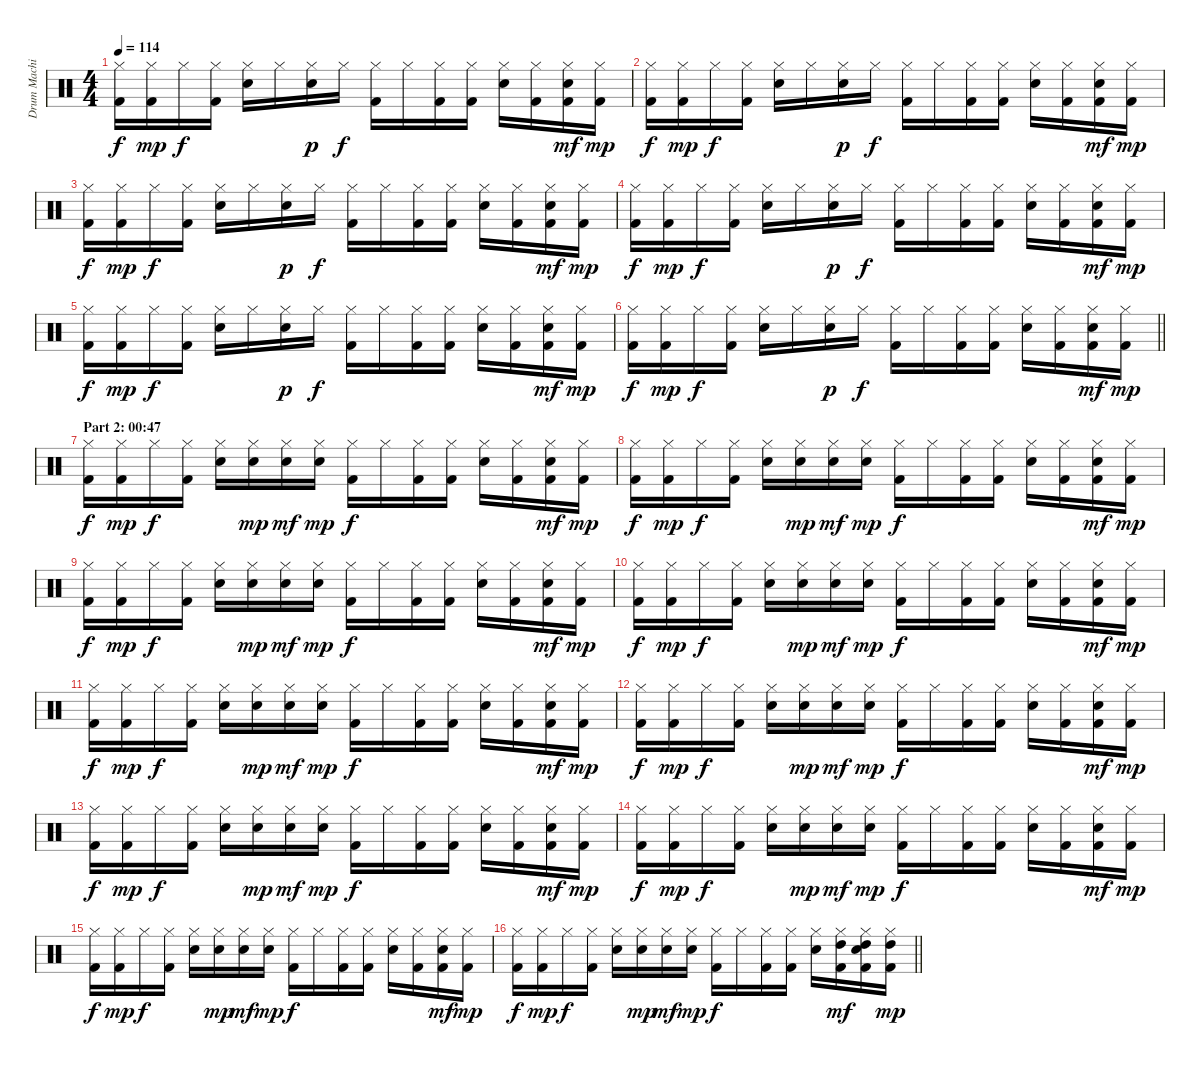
\track ("Drum Machine" "Drum Machi") {instrument percussion}
\staff {score}
\articulation defaults
\ts (4 4)
\tempo 114
\clef neutral
\ks c
("Hi-Hat (closed)" "Kick (hit) 2").16{dy f} ("Hi-Hat (closed)" "Kick (hit) 2").16{dy mp} "Hi-Hat (closed)".16{dy f} ("Hi-Hat (closed)" "Kick (hit) 2").16 ("Hi-Hat (closed)" "Electric Snare (hit)").16 "Hi-Hat (closed)".16 ("Hi-Hat (closed)" "Electric Snare (hit)").16{dy p} "Hi-Hat (closed)".16{dy f} ("Hi-Hat (closed)" "Kick (hit) 2").16 "Hi-Hat (closed)".16 ("Hi-Hat (closed)" "Kick (hit) 2").16 ("Hi-Hat (closed)" "Kick (hit) 2").16 ("Hi-Hat (closed)" "Electric Snare (hit)").16 ("Hi-Hat (closed)" "Kick (hit) 2").16 ("Hi-Hat (closed)" "Electric Snare (hit)" "Kick (hit) 2").16{dy mf} ("Hi-Hat (closed)" "Kick (hit) 2").16{dy mp} |
("Hi-Hat (closed)" "Kick (hit) 2").16{dy f} ("Hi-Hat (closed)" "Kick (hit) 2").16{dy mp} "Hi-Hat (closed)".16{dy f} ("Hi-Hat (closed)" "Kick (hit) 2").16 ("Hi-Hat (closed)" "Electric Snare (hit)").16 "Hi-Hat (closed)".16 ("Hi-Hat (closed)" "Electric Snare (hit)").16{dy p} "Hi-Hat (closed)".16{dy f} ("Hi-Hat (closed)" "Kick (hit) 2").16 "Hi-Hat (closed)".16 ("Hi-Hat (closed)" "Kick (hit) 2").16 ("Hi-Hat (closed)" "Kick (hit) 2").16 ("Hi-Hat (closed)" "Electric Snare (hit)").16 ("Hi-Hat (closed)" "Kick (hit) 2").16 ("Hi-Hat (closed)" "Electric Snare (hit)" "Kick (hit) 2").16{dy mf} ("Hi-Hat (closed)" "Kick (hit) 2").16{dy mp} |
("Hi-Hat (closed)" "Kick (hit) 2").16{dy f} ("Hi-Hat (closed)" "Kick (hit) 2").16{dy mp} "Hi-Hat (closed)".16{dy f} ("Hi-Hat (closed)" "Kick (hit) 2").16 ("Hi-Hat (closed)" "Electric Snare (hit)").16 "Hi-Hat (closed)".16 ("Hi-Hat (closed)" "Electric Snare (hit)").16{dy p} "Hi-Hat (closed)".16{dy f} ("Hi-Hat (closed)" "Kick (hit) 2").16 "Hi-Hat (closed)".16 ("Hi-Hat (closed)" "Kick (hit) 2").16 ("Hi-Hat (closed)" "Kick (hit) 2").16 ("Hi-Hat (closed)" "Electric Snare (hit)").16 ("Hi-Hat (closed)" "Kick (hit) 2").16 ("Hi-Hat (closed)" "Electric Snare (hit)" "Kick (hit) 2").16{dy mf} ("Hi-Hat (closed)" "Kick (hit) 2").16{dy mp} |
("Hi-Hat (closed)" "Kick (hit) 2").16{dy f} ("Hi-Hat (closed)" "Kick (hit) 2").16{dy mp} "Hi-Hat (closed)".16{dy f} ("Hi-Hat (closed)" "Kick (hit) 2").16 ("Hi-Hat (closed)" "Electric Snare (hit)").16 "Hi-Hat (closed)".16 ("Hi-Hat (closed)" "Electric Snare (hit)").16{dy p} "Hi-Hat (closed)".16{dy f} ("Hi-Hat (closed)" "Kick (hit) 2").16 "Hi-Hat (closed)".16 ("Hi-Hat (closed)" "Kick (hit) 2").16 ("Hi-Hat (closed)" "Kick (hit) 2").16 ("Hi-Hat (closed)" "Electric Snare (hit)").16 ("Hi-Hat (closed)" "Kick (hit) 2").16 ("Hi-Hat (closed)" "Electric Snare (hit)" "Kick (hit) 2").16{dy mf} ("Hi-Hat (closed)" "Kick (hit) 2").16{dy mp} |
("Hi-Hat (closed)" "Kick (hit) 2").16{dy f} ("Hi-Hat (closed)" "Kick (hit) 2").16{dy mp} "Hi-Hat (closed)".16{dy f} ("Hi-Hat (closed)" "Kick (hit) 2").16 ("Hi-Hat (closed)" "Electric Snare (hit)").16 "Hi-Hat (closed)".16 ("Hi-Hat (closed)" "Electric Snare (hit)").16{dy p} "Hi-Hat (closed)".16{dy f} ("Hi-Hat (closed)" "Kick (hit) 2").16 "Hi-Hat (closed)".16 ("Hi-Hat (closed)" "Kick (hit) 2").16 ("Hi-Hat (closed)" "Kick (hit) 2").16 ("Hi-Hat (closed)" "Electric Snare (hit)").16 ("Hi-Hat (closed)" "Kick (hit) 2").16 ("Hi-Hat (closed)" "Electric Snare (hit)" "Kick (hit) 2").16{dy mf} ("Hi-Hat (closed)" "Kick (hit) 2").16{dy mp} |
\barLineRight lightlight
("Hi-Hat (closed)" "Kick (hit) 2").16{dy f} ("Hi-Hat (closed)" "Kick (hit) 2").16{dy mp} "Hi-Hat (closed)".16{dy f} ("Hi-Hat (closed)" "Kick (hit) 2").16 ("Hi-Hat (closed)" "Electric Snare (hit)").16 "Hi-Hat (closed)".16 ("Hi-Hat (closed)" "Electric Snare (hit)").16{dy p} "Hi-Hat (closed)".16{dy f} ("Hi-Hat (closed)" "Kick (hit) 2").16 "Hi-Hat (closed)".16 ("Hi-Hat (closed)" "Kick (hit) 2").16 ("Hi-Hat (closed)" "Kick (hit) 2").16 ("Hi-Hat (closed)" "Electric Snare (hit)").16 ("Hi-Hat (closed)" "Kick (hit) 2").16 ("Hi-Hat (closed)" "Electric Snare (hit)" "Kick (hit) 2").16{dy mf} ("Hi-Hat (closed)" "Kick (hit) 2").16{dy mp} |
\section ("" "Part 2: 00:47")
("Hi-Hat (closed)" "Kick (hit) 2").16{dy f} ("Hi-Hat (closed)" "Kick (hit) 2").16{dy mp} "Hi-Hat (closed)".16{dy f} ("Hi-Hat (closed)" "Kick (hit) 2").16 ("Hi-Hat (closed)" "Electric Snare (hit)").16 ("Hi-Hat (closed)" "Electric Snare (hit)").16{dy mp} ("Hi-Hat (closed)" "Electric Snare (hit)").16{dy mf} ("Hi-Hat (closed)" "Electric Snare (hit)").16{dy mp} ("Hi-Hat (closed)" "Kick (hit) 2").16{dy f} "Hi-Hat (closed)".16 ("Hi-Hat (closed)" "Kick (hit) 2").16 ("Hi-Hat (closed)" "Kick (hit) 2").16 ("Hi-Hat (closed)" "Electric Snare (hit)").16 ("Hi-Hat (closed)" "Kick (hit) 2").16 ("Hi-Hat (closed)" "Electric Snare (hit)" "Kick (hit) 2").16{dy mf} ("Hi-Hat (closed)" "Kick (hit) 2").16{dy mp} |
("Hi-Hat (closed)" "Kick (hit) 2").16{dy f} ("Hi-Hat (closed)" "Kick (hit) 2").16{dy mp} "Hi-Hat (closed)".16{dy f} ("Hi-Hat (closed)" "Kick (hit) 2").16 ("Hi-Hat (closed)" "Electric Snare (hit)").16 ("Hi-Hat (closed)" "Electric Snare (hit)").16{dy mp} ("Hi-Hat (closed)" "Electric Snare (hit)").16{dy mf} ("Hi-Hat (closed)" "Electric Snare (hit)").16{dy mp} ("Hi-Hat (closed)" "Kick (hit) 2").16{dy f} "Hi-Hat (closed)".16 ("Hi-Hat (closed)" "Kick (hit) 2").16 ("Hi-Hat (closed)" "Kick (hit) 2").16 ("Hi-Hat (closed)" "Electric Snare (hit)").16 ("Hi-Hat (closed)" "Kick (hit) 2").16 ("Hi-Hat (closed)" "Electric Snare (hit)" "Kick (hit) 2").16{dy mf} ("Hi-Hat (closed)" "Kick (hit) 2").16{dy mp} |
("Hi-Hat (closed)" "Kick (hit) 2").16{dy f} ("Hi-Hat (closed)" "Kick (hit) 2").16{dy mp} "Hi-Hat (closed)".16{dy f} ("Hi-Hat (closed)" "Kick (hit) 2").16 ("Hi-Hat (closed)" "Electric Snare (hit)").16 ("Hi-Hat (closed)" "Electric Snare (hit)").16{dy mp} ("Hi-Hat (closed)" "Electric Snare (hit)").16{dy mf} ("Hi-Hat (closed)" "Electric Snare (hit)").16{dy mp} ("Hi-Hat (closed)" "Kick (hit) 2").16{dy f} "Hi-Hat (closed)".16 ("Hi-Hat (closed)" "Kick (hit) 2").16 ("Hi-Hat (closed)" "Kick (hit) 2").16 ("Hi-Hat (closed)" "Electric Snare (hit)").16 ("Hi-Hat (closed)" "Kick (hit) 2").16 ("Hi-Hat (closed)" "Electric Snare (hit)" "Kick (hit) 2").16{dy mf} ("Hi-Hat (closed)" "Kick (hit) 2").16{dy mp} |
("Hi-Hat (closed)" "Kick (hit) 2").16{dy f} ("Hi-Hat (closed)" "Kick (hit) 2").16{dy mp} "Hi-Hat (closed)".16{dy f} ("Hi-Hat (closed)" "Kick (hit) 2").16 ("Hi-Hat (closed)" "Electric Snare (hit)").16 ("Hi-Hat (closed)" "Electric Snare (hit)").16{dy mp} ("Hi-Hat (closed)" "Electric Snare (hit)").16{dy mf} ("Hi-Hat (closed)" "Electric Snare (hit)").16{dy mp} ("Hi-Hat (closed)" "Kick (hit) 2").16{dy f} "Hi-Hat (closed)".16 ("Hi-Hat (closed)" "Kick (hit) 2").16 ("Hi-Hat (closed)" "Kick (hit) 2").16 ("Hi-Hat (closed)" "Electric Snare (hit)").16 ("Hi-Hat (closed)" "Kick (hit) 2").16 ("Hi-Hat (closed)" "Electric Snare (hit)" "Kick (hit) 2").16{dy mf} ("Hi-Hat (closed)" "Kick (hit) 2").16{dy mp} |
("Hi-Hat (closed)" "Kick (hit) 2").16{dy f} ("Hi-Hat (closed)" "Kick (hit) 2").16{dy mp} "Hi-Hat (closed)".16{dy f} ("Hi-Hat (closed)" "Kick (hit) 2").16 ("Hi-Hat (closed)" "Electric Snare (hit)").16 ("Hi-Hat (closed)" "Electric Snare (hit)").16{dy mp} ("Hi-Hat (closed)" "Electric Snare (hit)").16{dy mf} ("Hi-Hat (closed)" "Electric Snare (hit)").16{dy mp} ("Hi-Hat (closed)" "Kick (hit) 2").16{dy f} "Hi-Hat (closed)".16 ("Hi-Hat (closed)" "Kick (hit) 2").16 ("Hi-Hat (closed)" "Kick (hit) 2").16 ("Hi-Hat (closed)" "Electric Snare (hit)").16 ("Hi-Hat (closed)" "Kick (hit) 2").16 ("Hi-Hat (closed)" "Electric Snare (hit)" "Kick (hit) 2").16{dy mf} ("Hi-Hat (closed)" "Kick (hit) 2").16{dy mp} |
("Hi-Hat (closed)" "Kick (hit) 2").16{dy f} ("Hi-Hat (closed)" "Kick (hit) 2").16{dy mp} "Hi-Hat (closed)".16{dy f} ("Hi-Hat (closed)" "Kick (hit) 2").16 ("Hi-Hat (closed)" "Electric Snare (hit)").16 ("Hi-Hat (closed)" "Electric Snare (hit)").16{dy mp} ("Hi-Hat (closed)" "Electric Snare (hit)").16{dy mf} ("Hi-Hat (closed)" "Electric Snare (hit)").16{dy mp} ("Hi-Hat (closed)" "Kick (hit) 2").16{dy f} "Hi-Hat (closed)".16 ("Hi-Hat (closed)" "Kick (hit) 2").16 ("Hi-Hat (closed)" "Kick (hit) 2").16 ("Hi-Hat (closed)" "Electric Snare (hit)").16 ("Hi-Hat (closed)" "Kick (hit) 2").16 ("Hi-Hat (closed)" "Electric Snare (hit)" "Kick (hit) 2").16{dy mf} ("Hi-Hat (closed)" "Kick (hit) 2").16{dy mp} |
("Hi-Hat (closed)" "Kick (hit) 2").16{dy f} ("Hi-Hat (closed)" "Kick (hit) 2").16{dy mp} "Hi-Hat (closed)".16{dy f} ("Hi-Hat (closed)" "Kick (hit) 2").16 ("Hi-Hat (closed)" "Electric Snare (hit)").16 ("Hi-Hat (closed)" "Electric Snare (hit)").16{dy mp} ("Hi-Hat (closed)" "Electric Snare (hit)").16{dy mf} ("Hi-Hat (closed)" "Electric Snare (hit)").16{dy mp} ("Hi-Hat (closed)" "Kick (hit) 2").16{dy f} "Hi-Hat (closed)".16 ("Hi-Hat (closed)" "Kick (hit) 2").16 ("Hi-Hat (closed)" "Kick (hit) 2").16 ("Hi-Hat (closed)" "Electric Snare (hit)").16 ("Hi-Hat (closed)" "Kick (hit) 2").16 ("Hi-Hat (closed)" "Electric Snare (hit)" "Kick (hit) 2").16{dy mf} ("Hi-Hat (closed)" "Kick (hit) 2").16{dy mp} |
("Hi-Hat (closed)" "Kick (hit) 2").16{dy f} ("Hi-Hat (closed)" "Kick (hit) 2").16{dy mp} "Hi-Hat (closed)".16{dy f} ("Hi-Hat (closed)" "Kick (hit) 2").16 ("Hi-Hat (closed)" "Electric Snare (hit)").16 ("Hi-Hat (closed)" "Electric Snare (hit)").16{dy mp} ("Hi-Hat (closed)" "Electric Snare (hit)").16{dy mf} ("Hi-Hat (closed)" "Electric Snare (hit)").16{dy mp} ("Hi-Hat (closed)" "Kick (hit) 2").16{dy f} "Hi-Hat (closed)".16 ("Hi-Hat (closed)" "Kick (hit) 2").16 ("Hi-Hat (closed)" "Kick (hit) 2").16 ("Hi-Hat (closed)" "Electric Snare (hit)").16 ("Hi-Hat (closed)" "Kick (hit) 2").16 ("Hi-Hat (closed)" "Electric Snare (hit)" "Kick (hit) 2").16{dy mf} ("Hi-Hat (closed)" "Kick (hit) 2").16{dy mp} |
("Hi-Hat (closed)" "Kick (hit) 2").16{dy f} ("Hi-Hat (closed)" "Kick (hit) 2").16{dy mp} "Hi-Hat (closed)".16{dy f} ("Hi-Hat (closed)" "Kick (hit) 2").16 ("Hi-Hat (closed)" "Electric Snare (hit)").16 ("Hi-Hat (closed)" "Electric Snare (hit)").16{dy mp} ("Hi-Hat (closed)" "Electric Snare (hit)").16{dy mf} ("Hi-Hat (closed)" "Electric Snare (hit)").16{dy mp} ("Hi-Hat (closed)" "Kick (hit) 2").16{dy f} "Hi-Hat (closed)".16 ("Hi-Hat (closed)" "Kick (hit) 2").16 ("Hi-Hat (closed)" "Kick (hit) 2").16 ("Hi-Hat (closed)" "Electric Snare (hit)").16 ("Hi-Hat (closed)" "Kick (hit) 2").16 ("Hi-Hat (closed)" "Electric Snare (hit)" "Kick (hit) 2").16{dy mf} ("Hi-Hat (closed)" "Kick (hit) 2").16{dy mp} |
\barLineRight lightlight
("Hi-Hat (closed)" "Kick (hit) 2").16{dy f} ("Hi-Hat (closed)" "Kick (hit) 2").16{dy mp} "Hi-Hat (closed)".16{dy f} ("Hi-Hat (closed)" "Kick (hit) 2").16 ("Hi-Hat (closed)" "Electric Snare (hit)").16 ("Hi-Hat (closed)" "Electric Snare (hit)").16{dy mp} ("Hi-Hat (closed)" "Electric Snare (hit)").16{dy mf} ("Hi-Hat (closed)" "Electric Snare (hit)").16{dy mp} ("Hi-Hat (closed)" "Kick (hit) 2").16{dy f} "Hi-Hat (closed)".16 ("Hi-Hat (closed)" "Kick (hit) 2").16 ("Hi-Hat (closed)" "Kick (hit) 2").16 ("Hi-Hat (closed)" "Electric Snare (hit)").16 ("Hi-Hat (closed)" "High Tom (hit)" "Kick (hit) 2").16{dy mf} ("Hi-Hat (closed)" "High Tom (hit)" "Electric Snare (hit)" "Kick (hit) 2").16 ("Hi-Hat (closed)" "High Tom (hit)" "Kick (hit) 2").16{dy mp}
